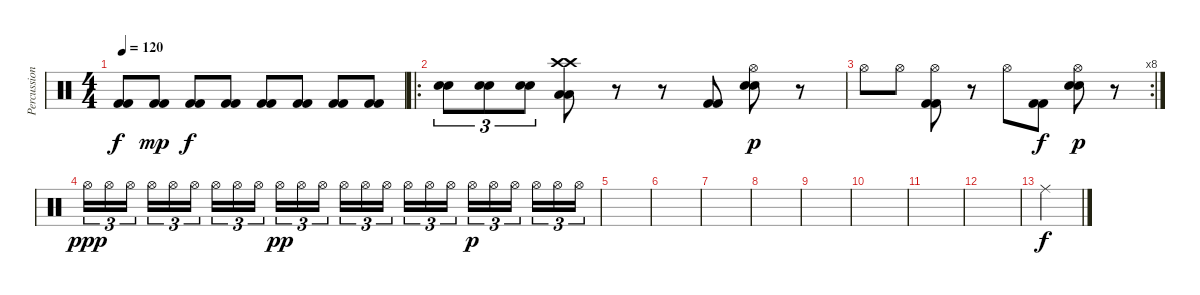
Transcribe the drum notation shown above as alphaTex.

\track ("Percussion" "Percussion") {instrument percussion}
\staff {score}
\articulation defaults
\ts (4 4)
\tempo 120
\clef neutral
\ks c
("Kick (hit) 2" "Kick (hit) 2").8{dy f} ("Kick (hit) 2" "Kick (hit) 2").8{dy mp} ("Kick (hit) 2" "Kick (hit) 2").8{dy f} ("Kick (hit) 2" "Kick (hit) 2").8 ("Kick (hit) 2" "Kick (hit) 2").8 ("Kick (hit) 2" "Kick (hit) 2").8 ("Kick (hit) 2" "Kick (hit) 2").8 ("Kick (hit) 2" "Kick (hit) 2").8 |
\ro
("Electric Snare (hit)" "Electric Snare (hit)").8{tu (3 2)} ("Electric Snare (hit)" "Electric Snare (hit)").8{tu (3 2)} ("Electric Snare (hit)" "Electric Snare (hit)").8{tu (3 2)} ("Crash high (hit)" "Crash high (hit)" "Low Tom (hit)" "Low Tom (hit)").8 r.8 r.8 ("Kick (hit) 2" "Kick (hit) 2").8 ("Hi-Hat (open)" "Electric Snare (hit)" "Electric Snare (hit)").8{dy p} r.8 |
\rc 8 "Hi-Hat (open)".8 "Hi-Hat (open)".8
("Hi-Hat (open)" "Kick (hit) 2" "Kick (hit) 2").8 r.8 "Hi-Hat (open)".8 ("Kick (hit) 2" "Kick (hit) 2").8{dy f} ("Hi-Hat (open)" "Electric Snare (hit)" "Electric Snare (hit)").8{dy p} r.8 |
"Hi-Hat (open)".16{tu (3 2) dy ppp} "Hi-Hat (open)".16{tu (3 2)} "Hi-Hat (open)".16{tu (3 2)} "Hi-Hat (open)".16{tu (3 2)} "Hi-Hat (open)".16{tu (3 2)} "Hi-Hat (open)".16{tu (3 2)} "Hi-Hat (open)".16{tu (3 2)} "Hi-Hat (open)".16{tu (3 2)} "Hi-Hat (open)".16{tu (3 2)} "Hi-Hat (open)".16{tu (3 2) dy pp} "Hi-Hat (open)".16{tu (3 2)} "Hi-Hat (open)".16{tu (3 2)} "Hi-Hat (open)".16{tu (3 2)} "Hi-Hat (open)".16{tu (3 2)} "Hi-Hat (open)".16{tu (3 2)} "Hi-Hat (open)".16{tu (3 2)} "Hi-Hat (open)".16{tu (3 2)} "Hi-Hat (open)".16{tu (3 2)} "Hi-Hat (open)".16{tu (3 2) dy p} "Hi-Hat (open)".16{tu (3 2)} "Hi-Hat (open)".16{tu (3 2)} "Hi-Hat (open)".16{tu (3 2)} "Hi-Hat (open)".16{tu (3 2)} "Hi-Hat (open)".16{tu (3 2)} |
|
|
|
|
|
|
|
|
"Ride (middle)".4{dy f}
